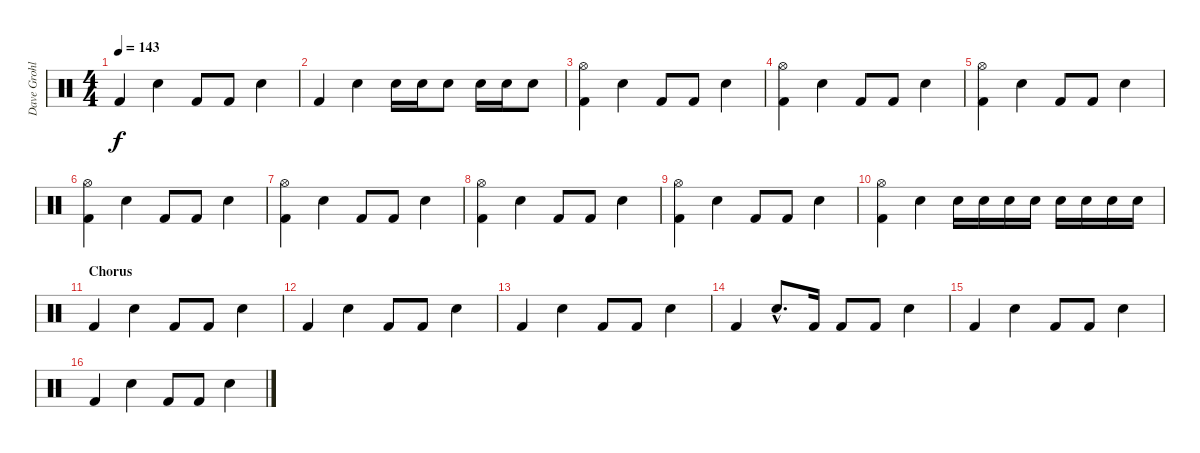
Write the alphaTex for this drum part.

\track ("Dave Grohl" "Dave Grohl") {instrument percussion}
\staff {score}
\articulation defaults
\ts (4 4)
\tempo 143
\clef neutral
\ks c "Kick (hit) 2".4{dy f} "Snare (hit) 2".4 "Kick (hit) 2".8 "Kick (hit) 2".8 "Snare (hit) 2".4
|
"Kick (hit) 2".4 "Snare (hit) 2".4 "Snare (hit) 2".16 "Snare (hit) 2".16 "Snare (hit) 2".8 "Snare (hit) 2".16 "Snare (hit) 2".16 "Snare (hit) 2".8 |
("Hi-Hat (open)" "Kick (hit) 2").4 "Snare (hit) 2".4 "Kick (hit) 2".8 "Kick (hit) 2".8 "Snare (hit) 2".4 |
("Hi-Hat (open)" "Kick (hit) 2").4 "Snare (hit) 2".4 "Kick (hit) 2".8 "Kick (hit) 2".8 "Snare (hit) 2".4 |
("Hi-Hat (open)" "Kick (hit) 2").4 "Snare (hit) 2".4 "Kick (hit) 2".8 "Kick (hit) 2".8 "Snare (hit) 2".4 |
("Hi-Hat (open)" "Kick (hit) 2").4 "Snare (hit) 2".4 "Kick (hit) 2".8 "Kick (hit) 2".8 "Snare (hit) 2".4 |
("Hi-Hat (open)" "Kick (hit) 2").4 "Snare (hit) 2".4 "Kick (hit) 2".8 "Kick (hit) 2".8 "Snare (hit) 2".4 |
("Hi-Hat (open)" "Kick (hit) 2").4 "Snare (hit) 2".4 "Kick (hit) 2".8 "Kick (hit) 2".8 "Snare (hit) 2".4 |
("Hi-Hat (open)" "Kick (hit) 2").4 "Snare (hit) 2".4 "Kick (hit) 2".8 "Kick (hit) 2".8 "Snare (hit) 2".4 |
("Hi-Hat (open)" "Kick (hit) 2").4 "Snare (hit) 2".4 "Snare (hit) 2".16 "Snare (hit) 2".16 "Snare (hit) 2".16 "Snare (hit) 2".16 "Snare (hit) 2".16 "Snare (hit) 2".16 "Snare (hit) 2".16 "Snare (hit) 2".16 |
\section ("" "Chorus")
"Kick (hit) 2".4 "Snare (hit) 2".4 "Kick (hit) 2".8 "Kick (hit) 2".8 "Snare (hit) 2".4 |
"Kick (hit) 2".4 "Snare (hit) 2".4 "Kick (hit) 2".8 "Kick (hit) 2".8 "Snare (hit) 2".4 |
"Kick (hit) 2".4 "Snare (hit) 2".4 "Kick (hit) 2".8 "Kick (hit) 2".8 "Snare (hit) 2".4 |
"Kick (hit) 2".4 "Snare (hit) 2"{hac}.8{d} "Kick (hit) 2".16 "Kick (hit) 2".8 "Kick (hit) 2".8 "Snare (hit) 2".4 |
"Kick (hit) 2".4 "Snare (hit) 2".4 "Kick (hit) 2".8 "Kick (hit) 2".8 "Snare (hit) 2".4 |
"Kick (hit) 2".4 "Snare (hit) 2".4 "Kick (hit) 2".8 "Kick (hit) 2".8 "Snare (hit) 2".4
